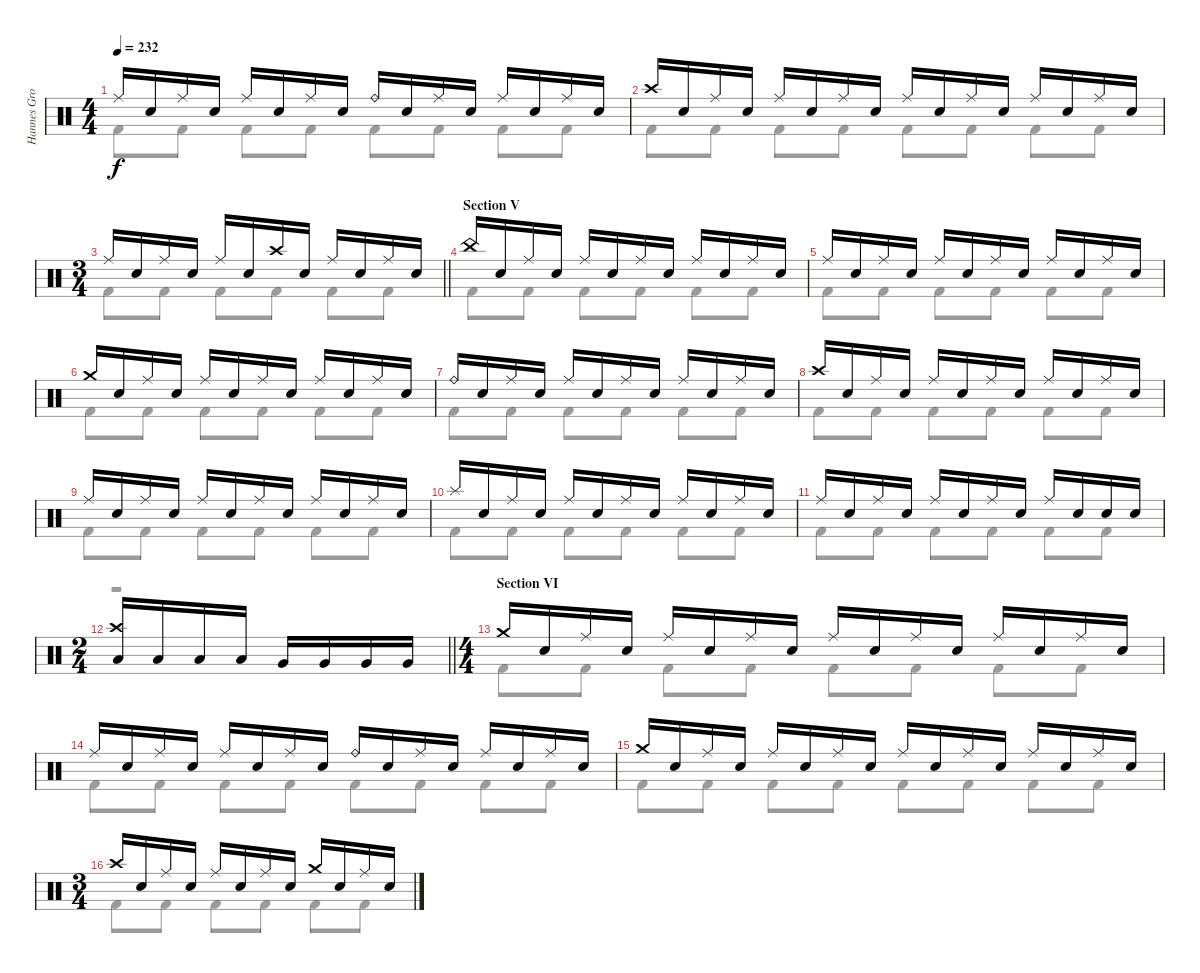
\track ("Hannes Grossman" "Hannes Gro") {instrument percussion}
\staff {score}
\articulation defaults
\voice
\ts (4 4)
\tempo 232
\clef neutral
\ks c "Ride (middle)".16{dy f} "Electric Snare (hit)".16 "Ride (middle)".16 "Electric Snare (hit)".16 "Ride (middle)".16 "Electric Snare (hit)".16 "Ride (middle)".16 "Electric Snare (hit)".16 "Ride (bell)".16 "Electric Snare (hit)".16 "Ride (middle)".16 "Electric Snare (hit)".16 "Ride (middle)".16 "Electric Snare (hit)".16 "Ride (middle)".16 "Electric Snare (hit)".16
|
"Crash high (hit)".16 "Electric Snare (hit)".16 "Ride (middle)".16 "Electric Snare (hit)".16 "Ride (middle)".16 "Electric Snare (hit)".16 "Ride (middle)".16 "Electric Snare (hit)".16 "Ride (middle)".16 "Electric Snare (hit)".16 "Ride (middle)".16 "Electric Snare (hit)".16 "Ride (middle)".16 "Electric Snare (hit)".16 "Ride (middle)".16 "Electric Snare (hit)".16 |
\ts (3 4)
\barLineRight lightlight "Ride (middle)".16 "Electric Snare (hit)".16 "Ride (middle)".16 "Electric Snare (hit)".16 "Ride (middle)".16 "Electric Snare (hit)".16 "Crash high (hit)".16 "Electric Snare (hit)".16 "Ride (middle)".16 "Electric Snare (hit)".16 "Ride (middle)".16 "Electric Snare (hit)".16
|
\section ("" "Section V")
"China (hit)".16 "Electric Snare (hit)".16 "Ride (middle)".16 "Electric Snare (hit)".16 "Ride (middle)".16 "Electric Snare (hit)".16 "Ride (middle)".16 "Electric Snare (hit)".16 "Ride (middle)".16 "Electric Snare (hit)".16 "Ride (middle)".16 "Electric Snare (hit)".16 |
"Ride (middle)".16 "Electric Snare (hit)".16 "Ride (middle)".16 "Electric Snare (hit)".16 "Ride (middle)".16 "Electric Snare (hit)".16 "Ride (middle)".16 "Electric Snare (hit)".16 "Ride (middle)".16 "Electric Snare (hit)".16 "Ride (middle)".16 "Electric Snare (hit)".16 |
"Crash medium (hit)".16 "Electric Snare (hit)".16 "Ride (middle)".16 "Electric Snare (hit)".16 "Ride (middle)".16 "Electric Snare (hit)".16 "Ride (middle)".16 "Electric Snare (hit)".16 "Ride (middle)".16 "Electric Snare (hit)".16 "Ride (middle)".16 "Electric Snare (hit)".16 |
"Ride (bell)".16 "Electric Snare (hit)".16 "Ride (middle)".16 "Electric Snare (hit)".16 "Ride (middle)".16 "Electric Snare (hit)".16 "Ride (middle)".16 "Electric Snare (hit)".16 "Ride (middle)".16 "Electric Snare (hit)".16 "Ride (middle)".16 "Electric Snare (hit)".16 |
"Crash high (hit)".16 "Electric Snare (hit)".16 "Ride (middle)".16 "Electric Snare (hit)".16 "Ride (middle)".16 "Electric Snare (hit)".16 "Ride (middle)".16 "Electric Snare (hit)".16 "Ride (middle)".16 "Electric Snare (hit)".16 "Ride (middle)".16 "Electric Snare (hit)".16 |
"Ride (middle)".16 "Electric Snare (hit)".16 "Ride (middle)".16 "Electric Snare (hit)".16 "Ride (middle)".16 "Electric Snare (hit)".16 "Ride (middle)".16 "Electric Snare (hit)".16 "Ride (middle)".16 "Electric Snare (hit)".16 "Ride (middle)".16 "Electric Snare (hit)".16 |
"Splash (hit)".16 "Electric Snare (hit)".16 "Ride (middle)".16 "Electric Snare (hit)".16 "Ride (middle)".16 "Electric Snare (hit)".16 "Ride (middle)".16 "Electric Snare (hit)".16 "Ride (middle)".16 "Electric Snare (hit)".16 "Ride (middle)".16 "Electric Snare (hit)".16 |
"Ride (middle)".16 "Electric Snare (hit)".16 "Ride (middle)".16 "Electric Snare (hit)".16 "Ride (middle)".16 "Electric Snare (hit)".16 "Ride (middle)".16 "Electric Snare (hit)".16 "Ride (middle)".16 "Electric Snare (hit)".16 "Electric Snare (hit)".16 "Electric Snare (hit)".16 |
\ts (2 4)
\barLineRight lightlight
("Low Tom (hit)" "Crash high (hit)").16 "Low Tom (hit)".16 "Low Tom (hit)".16 "Low Tom (hit)".16 "Very Low Tom (hit)".16 "Very Low Tom (hit)".16 "Very Low Tom (hit)".16 "Very Low Tom (hit)".16 |
\ts (4 4)
\section ("" "Section VI")
"Crash medium (hit)".16 "Electric Snare (hit)".16 "Ride (middle)".16 "Electric Snare (hit)".16 "Ride (middle)".16 "Electric Snare (hit)".16 "Ride (middle)".16 "Electric Snare (hit)".16 "Ride (middle)".16 "Electric Snare (hit)".16 "Ride (middle)".16 "Electric Snare (hit)".16 "Ride (middle)".16 "Electric Snare (hit)".16 "Ride (middle)".16 "Electric Snare (hit)".16 |
"Ride (middle)".16 "Electric Snare (hit)".16 "Ride (middle)".16 "Electric Snare (hit)".16 "Ride (middle)".16 "Electric Snare (hit)".16 "Ride (middle)".16 "Electric Snare (hit)".16 "Ride (bell)".16 "Electric Snare (hit)".16 "Ride (middle)".16 "Electric Snare (hit)".16 "Ride (middle)".16 "Electric Snare (hit)".16 "Ride (middle)".16 "Electric Snare (hit)".16 |
"Crash medium (hit)".16 "Electric Snare (hit)".16 "Ride (middle)".16 "Electric Snare (hit)".16 "Ride (middle)".16 "Electric Snare (hit)".16 "Ride (middle)".16 "Electric Snare (hit)".16 "Ride (middle)".16 "Electric Snare (hit)".16 "Ride (middle)".16 "Electric Snare (hit)".16 "Ride (middle)".16 "Electric Snare (hit)".16 "Ride (middle)".16 "Electric Snare (hit)".16 |
\ts (3 4)
"Crash high (hit)".16 "Electric Snare (hit)".16 "Ride (middle)".16 "Electric Snare (hit)".16 "Ride (middle)".16 "Electric Snare (hit)".16 "Ride (middle)".16 "Electric Snare (hit)".16 "Crash medium (hit)".16 "Electric Snare (hit)".16 "Ride (middle)".16 "Electric Snare (hit)".16
\voice
\clef neutral
\ottava regular
\simile none
\ks c "Kick (hit) 2".8{dy f} "Kick (hit) 2".8 "Kick (hit) 2".8 "Kick (hit) 2".8 "Kick (hit) 2".8 "Kick (hit) 2".8 "Kick (hit) 2".8 "Kick (hit) 2".8
|
"Kick (hit) 2".8 "Kick (hit) 2".8 "Kick (hit) 2".8 "Kick (hit) 2".8 "Kick (hit) 2".8 "Kick (hit) 2".8 "Kick (hit) 2".8 "Kick (hit) 2".8 |
\barLineRight lightlight "Kick (hit) 2".8 "Kick (hit) 2".8 "Kick (hit) 2".8 "Kick (hit) 2".8 "Kick (hit) 2".8 "Kick (hit) 2".8
|
"Kick (hit) 2".8 "Kick (hit) 2".8 "Kick (hit) 2".8 "Kick (hit) 2".8 "Kick (hit) 2".8 "Kick (hit) 2".8 |
"Kick (hit) 2".8 "Kick (hit) 2".8 "Kick (hit) 2".8 "Kick (hit) 2".8 "Kick (hit) 2".8 "Kick (hit) 2".8 |
"Kick (hit) 2".8 "Kick (hit) 2".8 "Kick (hit) 2".8 "Kick (hit) 2".8 "Kick (hit) 2".8 "Kick (hit) 2".8 |
"Kick (hit) 2".8 "Kick (hit) 2".8 "Kick (hit) 2".8 "Kick (hit) 2".8 "Kick (hit) 2".8 "Kick (hit) 2".8 |
"Kick (hit) 2".8 "Kick (hit) 2".8 "Kick (hit) 2".8 "Kick (hit) 2".8 "Kick (hit) 2".8 "Kick (hit) 2".8 |
"Kick (hit) 2".8 "Kick (hit) 2".8 "Kick (hit) 2".8 "Kick (hit) 2".8 "Kick (hit) 2".8 "Kick (hit) 2".8 |
"Kick (hit) 2".8 "Kick (hit) 2".8 "Kick (hit) 2".8 "Kick (hit) 2".8 "Kick (hit) 2".8 "Kick (hit) 2".8 |
"Kick (hit) 2".8 "Kick (hit) 2".8 "Kick (hit) 2".8 "Kick (hit) 2".8 "Kick (hit) 2".8 "Kick (hit) 2".8 |
\barLineRight lightlight
r.2 |
"Kick (hit) 2".8 "Kick (hit) 2".8 "Kick (hit) 2".8 "Kick (hit) 2".8 "Kick (hit) 2".8 "Kick (hit) 2".8 "Kick (hit) 2".8 "Kick (hit) 2".8 |
"Kick (hit) 2".8 "Kick (hit) 2".8 "Kick (hit) 2".8 "Kick (hit) 2".8 "Kick (hit) 2".8 "Kick (hit) 2".8 "Kick (hit) 2".8 "Kick (hit) 2".8 |
"Kick (hit) 2".8 "Kick (hit) 2".8 "Kick (hit) 2".8 "Kick (hit) 2".8 "Kick (hit) 2".8 "Kick (hit) 2".8 "Kick (hit) 2".8 "Kick (hit) 2".8 |
"Kick (hit) 2".8 "Kick (hit) 2".8 "Kick (hit) 2".8 "Kick (hit) 2".8 "Kick (hit) 2".8 "Kick (hit) 2".8
